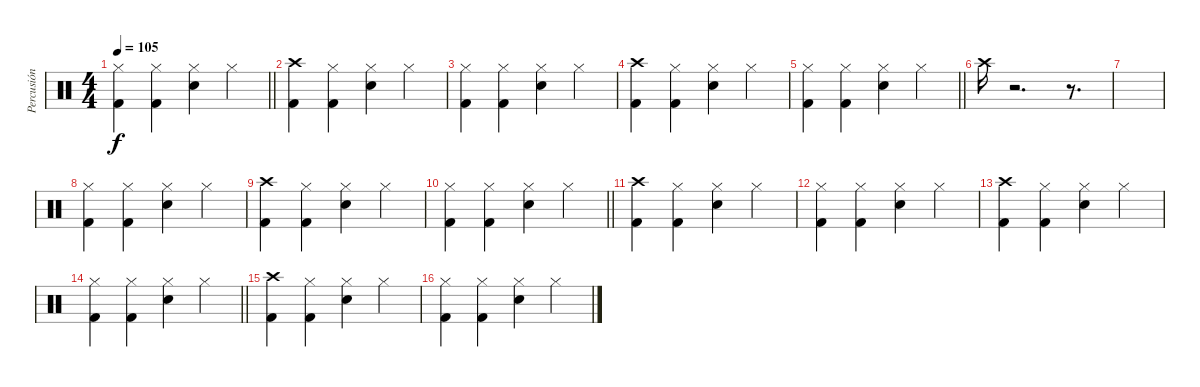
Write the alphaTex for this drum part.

\track ("Percusión" "Percusión") {instrument percussion}
\staff {score}
\articulation defaults
\ts (4 4)
\tempo 105
\clef neutral
\barLineRight lightlight
\ks c
("Kick (hit) 2" "Hi-Hat (closed)").4{dy f} ("Kick (hit) 2" "Hi-Hat (closed)").4 ("Snare (hit) 2" "Hi-Hat (closed)").4 "Hi-Hat (closed)".4 |
("Kick (hit) 2" "Crash high (hit)").4 ("Kick (hit) 2" "Hi-Hat (closed)").4 ("Snare (hit) 2" "Hi-Hat (closed)").4 "Hi-Hat (closed)".4 |
("Kick (hit) 2" "Hi-Hat (closed)").4 ("Kick (hit) 2" "Hi-Hat (closed)").4 ("Snare (hit) 2" "Hi-Hat (closed)").4 "Hi-Hat (closed)".4 |
("Kick (hit) 2" "Crash high (hit)").4 ("Kick (hit) 2" "Hi-Hat (closed)").4 ("Snare (hit) 2" "Hi-Hat (closed)").4 "Hi-Hat (closed)".4 |
\barLineRight lightlight
("Kick (hit) 2" "Hi-Hat (closed)").4 ("Kick (hit) 2" "Hi-Hat (closed)").4 ("Snare (hit) 2" "Hi-Hat (closed)").4 "Hi-Hat (closed)".4 |
"Crash high (hit)".16 r.2{d} r.8{d} |
|
("Kick (hit) 2" "Hi-Hat (closed)").4 ("Kick (hit) 2" "Hi-Hat (closed)").4 ("Snare (hit) 2" "Hi-Hat (closed)").4 "Hi-Hat (closed)".4 |
("Kick (hit) 2" "Crash high (hit)").4 ("Kick (hit) 2" "Hi-Hat (closed)").4 ("Snare (hit) 2" "Hi-Hat (closed)").4 "Hi-Hat (closed)".4 |
\barLineRight lightlight
("Kick (hit) 2" "Hi-Hat (closed)").4 ("Kick (hit) 2" "Hi-Hat (closed)").4 ("Snare (hit) 2" "Hi-Hat (closed)").4 "Hi-Hat (closed)".4 |
("Kick (hit) 2" "Crash high (hit)").4 ("Kick (hit) 2" "Hi-Hat (closed)").4 ("Snare (hit) 2" "Hi-Hat (closed)").4 "Hi-Hat (closed)".4 |
("Kick (hit) 2" "Hi-Hat (closed)").4 ("Kick (hit) 2" "Hi-Hat (closed)").4 ("Snare (hit) 2" "Hi-Hat (closed)").4 "Hi-Hat (closed)".4 |
("Kick (hit) 2" "Crash high (hit)").4 ("Kick (hit) 2" "Hi-Hat (closed)").4 ("Snare (hit) 2" "Hi-Hat (closed)").4 "Hi-Hat (closed)".4 |
\barLineRight lightlight
("Kick (hit) 2" "Hi-Hat (closed)").4 ("Kick (hit) 2" "Hi-Hat (closed)").4 ("Snare (hit) 2" "Hi-Hat (closed)").4 "Hi-Hat (closed)".4 |
("Kick (hit) 2" "Crash high (hit)").4 ("Kick (hit) 2" "Hi-Hat (closed)").4 ("Snare (hit) 2" "Hi-Hat (closed)").4 "Hi-Hat (closed)".4 |
("Kick (hit) 2" "Hi-Hat (closed)").4 ("Kick (hit) 2" "Hi-Hat (closed)").4 ("Snare (hit) 2" "Hi-Hat (closed)").4 "Hi-Hat (closed)".4
